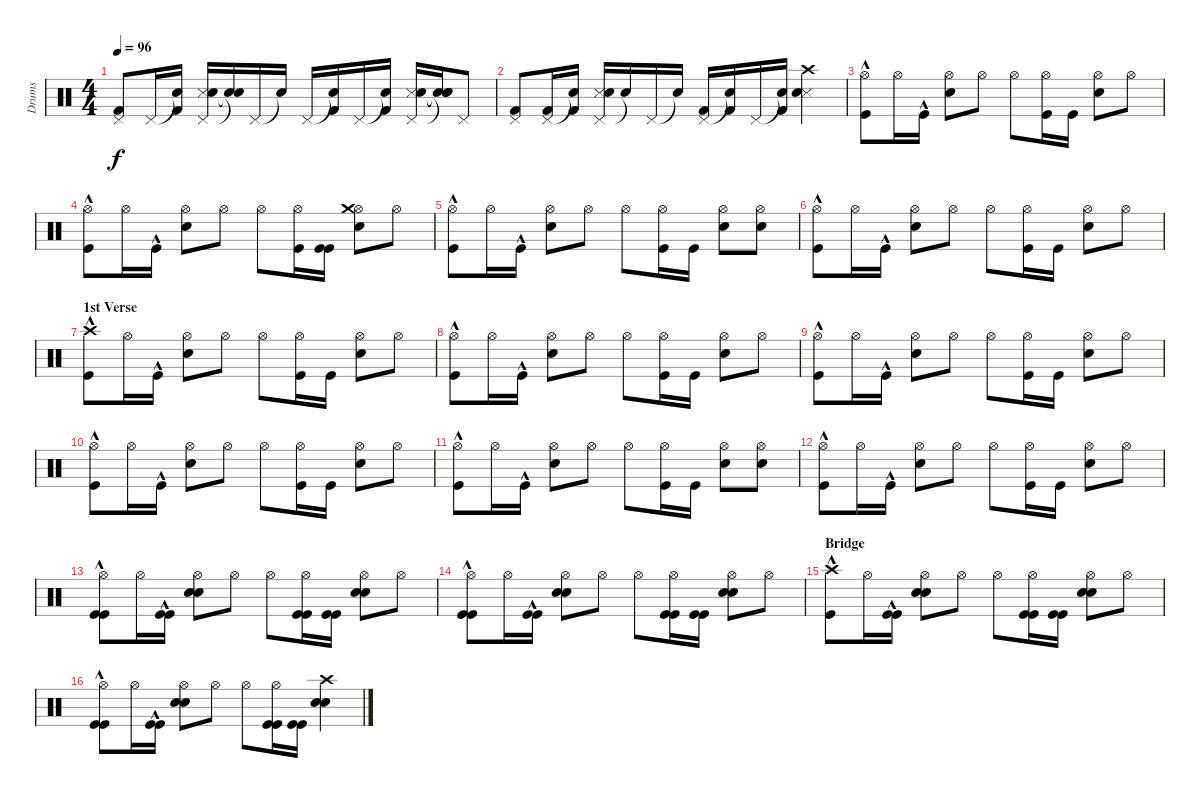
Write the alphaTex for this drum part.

\track ("Drums" "Drums") {instrument percussion}
\staff {score}
\articulation defaults
\ts (4 4)
\tempo 96
\clef neutral
\ks c
("Pedal Hi-Hat (hit)" "Kick (hit) 2").8{dy f} "Pedal Hi-Hat (hit)".16 ("Snare (hit)"{t} "Kick (hit) 2").16 ("Pedal Hi-Hat (hit)" "Snare (side stick) 3" "Snare (hit) 2").16 ("Snare (hit)"{t} "Snare (hit)"{t}).16 "Pedal Hi-Hat (hit)".16 "Snare (hit)"{t}.16 "Pedal Hi-Hat (hit)".16 ("Snare (hit)"{t} "Kick (hit) 2").16 "Pedal Hi-Hat (hit)".16 ("Snare (hit)"{t} "Kick (hit) 2").16 ("Pedal Hi-Hat (hit)" "Snare (side stick) 3" "Snare (hit) 2").16 ("Snare (hit)"{t} "Snare (hit)"{t} "Snare (hit)"{t}).16 "Pedal Hi-Hat (hit)".8 |
("Pedal Hi-Hat (hit)" "Kick (hit) 2").8 ("Pedal Hi-Hat (hit)" "Kick (hit) 2").16 ("Snare (hit)"{t} "Kick (hit) 2").16 ("Pedal Hi-Hat (hit)" "Snare (side stick) 3" "Snare (hit) 2").16 "Snare (hit)"{t}.16 "Pedal Hi-Hat (hit)".16 "Snare (hit)"{t}.16 ("Pedal Hi-Hat (hit)" "Kick (hit) 2").16 ("Snare (hit)"{t} "Kick (hit) 2").16 "Pedal Hi-Hat (hit)".16 ("Snare (hit)"{t} "Kick (hit) 2").16 ("Crash high (hit)" "Snare (side stick) 3" "Snare (hit) 2").4 |
("Kick (hit)"{hac} "Hi-Hat (open)").8 "Hi-Hat (open)".16 "Kick (hit)"{hac}.16 ("Snare (hit) 2" "Hi-Hat (open)").8 "Hi-Hat (open)".8 "Hi-Hat (open)".8 ("Kick (hit)" "Hi-Hat (open)").16 "Kick (hit)".16 ("Snare (hit) 2" "Hi-Hat (open)").8 "Hi-Hat (open)".8 |
("Kick (hit)"{hac} "Hi-Hat (open)").8 "Hi-Hat (open)".16 "Kick (hit)"{hac}.16 ("Snare (hit) 2" "Hi-Hat (open)").8 "Hi-Hat (open)".8 "Hi-Hat (open)".8 ("Kick (hit)" "Hi-Hat (open)").16 ("Kick (hit)" "Kick (hit)").16 ("Snare (hit) 2" "Hi-Hat (open)" "Crash medium (hit)").8 "Hi-Hat (open)".8 |
("Kick (hit)"{hac} "Hi-Hat (open)").8 "Hi-Hat (open)".16 "Kick (hit)"{hac}.16 ("Snare (hit) 2" "Hi-Hat (open)").8 "Hi-Hat (open)".8 "Hi-Hat (open)".8 ("Kick (hit)" "Hi-Hat (open)").16 "Kick (hit)".16 ("Snare (hit) 2" "Hi-Hat (open)").8 ("Hi-Hat (open)" "Snare (hit) 2").8 |
("Kick (hit)"{hac} "Hi-Hat (open)").8 "Hi-Hat (open)".16 "Kick (hit)"{hac}.16 ("Snare (hit) 2" "Hi-Hat (open)").8 "Hi-Hat (open)".8 "Hi-Hat (open)".8 ("Kick (hit)" "Hi-Hat (open)").16 "Kick (hit)".16 ("Snare (hit) 2" "Hi-Hat (open)").8 "Hi-Hat (open)".8 |
\section ("" "1st Verse")
("Kick (hit)"{hac} "Crash high (hit)").8 "Hi-Hat (open)".16 "Kick (hit)"{hac}.16 ("Snare (hit) 2" "Hi-Hat (open)").8 "Hi-Hat (open)".8 "Hi-Hat (open)".8 ("Kick (hit)" "Hi-Hat (open)").16 "Kick (hit)".16 ("Snare (hit) 2" "Hi-Hat (open)").8 "Hi-Hat (open)".8 |
("Kick (hit)"{hac} "Hi-Hat (open)").8 "Hi-Hat (open)".16 "Kick (hit)"{hac}.16 ("Snare (hit) 2" "Hi-Hat (open)").8 "Hi-Hat (open)".8 "Hi-Hat (open)".8 ("Kick (hit)" "Hi-Hat (open)").16 "Kick (hit)".16 ("Snare (hit) 2" "Hi-Hat (open)").8 "Hi-Hat (open)".8 |
("Kick (hit)"{hac} "Hi-Hat (open)").8 "Hi-Hat (open)".16 "Kick (hit)"{hac}.16 ("Snare (hit) 2" "Hi-Hat (open)").8 "Hi-Hat (open)".8 "Hi-Hat (open)".8 ("Kick (hit)" "Hi-Hat (open)").16 "Kick (hit)".16 ("Snare (hit) 2" "Hi-Hat (open)").8 "Hi-Hat (open)".8 |
("Kick (hit)"{hac} "Hi-Hat (open)").8 "Hi-Hat (open)".16 "Kick (hit)"{hac}.16 ("Snare (hit) 2" "Hi-Hat (open)").8 "Hi-Hat (open)".8 "Hi-Hat (open)".8 ("Kick (hit)" "Hi-Hat (open)").16 "Kick (hit)".16 ("Snare (hit) 2" "Hi-Hat (open)").8 "Hi-Hat (open)".8 |
("Kick (hit)"{hac} "Hi-Hat (open)").8 "Hi-Hat (open)".16 "Kick (hit)"{hac}.16 ("Snare (hit) 2" "Hi-Hat (open)").8 "Hi-Hat (open)".8 "Hi-Hat (open)".8 ("Kick (hit)" "Hi-Hat (open)").16 "Kick (hit)".16 ("Snare (hit) 2" "Hi-Hat (open)").8 ("Hi-Hat (open)" "Snare (hit) 2").8 |
("Kick (hit)"{hac} "Hi-Hat (open)").8 "Hi-Hat (open)".16 "Kick (hit)"{hac}.16 ("Snare (hit) 2" "Hi-Hat (open)").8 "Hi-Hat (open)".8 "Hi-Hat (open)".8 ("Kick (hit)" "Hi-Hat (open)").16 "Kick (hit)".16 ("Snare (hit) 2" "Hi-Hat (open)").8 "Hi-Hat (open)".8 |
("Kick (hit)"{hac} "Kick (hit)"{hac} "Hi-Hat (open)").8 "Hi-Hat (open)".16 ("Kick (hit)"{hac} "Kick (hit)"{hac}).16 ("Snare (hit) 2" "Snare (hit) 2" "Hi-Hat (open)").8 "Hi-Hat (open)".8 "Hi-Hat (open)".8 ("Kick (hit)" "Kick (hit)" "Hi-Hat (open)").16 ("Kick (hit)" "Kick (hit)").16 ("Snare (hit) 2" "Snare (hit) 2" "Hi-Hat (open)").8 "Hi-Hat (open)".8 |
("Kick (hit)"{hac} "Kick (hit)"{hac} "Hi-Hat (open)").8 "Hi-Hat (open)".16 ("Kick (hit)"{hac} "Kick (hit)"{hac}).16 ("Snare (hit) 2" "Snare (hit) 2" "Hi-Hat (open)").8 "Hi-Hat (open)".8 "Hi-Hat (open)".8 ("Kick (hit)" "Kick (hit)" "Hi-Hat (open)").16 ("Kick (hit)" "Kick (hit)").16 ("Snare (hit) 2" "Snare (hit) 2" "Hi-Hat (open)").8 "Hi-Hat (open)".8 |
\section ("" "Bridge")
("Kick (hit)"{hac} "Crash high (hit)").8 "Hi-Hat (open)".16 ("Kick (hit)"{hac} "Kick (hit)"{hac}).16 ("Snare (hit) 2" "Snare (hit) 2" "Hi-Hat (open)").8 "Hi-Hat (open)".8 "Hi-Hat (open)".8 ("Kick (hit)" "Kick (hit)" "Hi-Hat (open)").16 ("Kick (hit)" "Kick (hit)").16 ("Snare (hit) 2" "Snare (hit) 2" "Hi-Hat (open)").8 "Hi-Hat (open)".8 |
("Kick (hit)"{hac} "Kick (hit)"{hac} "Hi-Hat (open)").8 "Hi-Hat (open)".16 ("Kick (hit)"{hac} "Kick (hit)"{hac}).16 ("Snare (hit) 2" "Snare (hit) 2" "Hi-Hat (open)").8 "Hi-Hat (open)".8 "Hi-Hat (open)".8 ("Kick (hit)" "Kick (hit)" "Hi-Hat (open)").16 ("Kick (hit)" "Kick (hit)").16 ("Snare (hit) 2" "Snare (hit) 2" "Crash high (hit)").4
